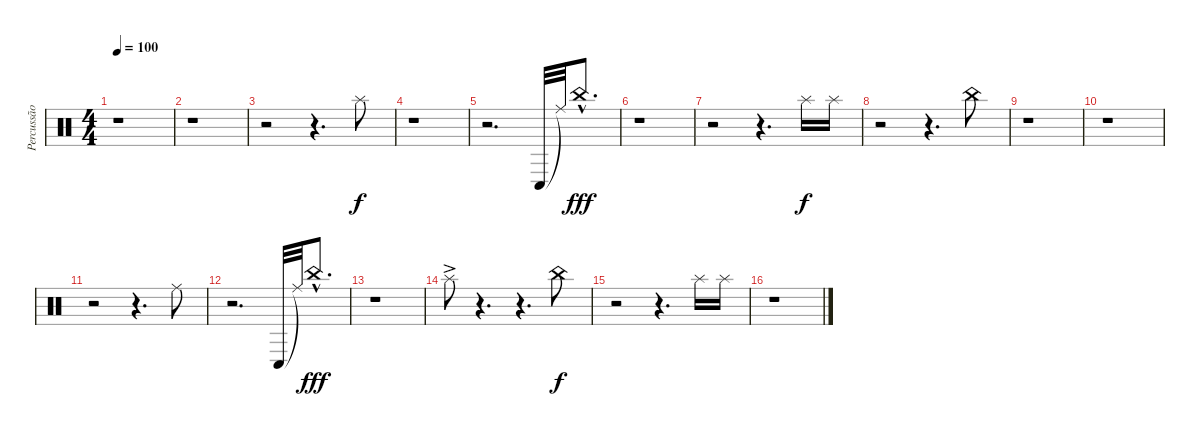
\track ("Percussão" "Percussão") {instrument percussion}
\staff {score}
\articulation defaults
\ts (4 4)
\tempo 100
\clef neutral
\ks c
r.1{dy f} |
r.1 |
r.2 r.4{d} "Splash (hit)".8 |
\ks aminor
r.1 |
r.2{d} "Conga low (hit)".32 "Ride (middle)"{t}.32 "China (hit)"{hac}.8{d dy fff} |
r.1 |
\ks c
r.2 r.4{d} "Splash (hit)".16{dy f} "Splash (hit)".16 |
r.2 r.4{d} "China (hit)".8 |
r.1 |
r.1 |
r.2 r.4{d} "Ride (middle)".8 |
\ks aminor
r.2{d} "Conga low (hit)".32 "Ride (middle)"{t}.32 "China (hit)"{hac}.8{d dy fff} |
r.1 |
\ks c "Splash (hit)"{ac}.8
r.4{d} r.4{d} "China (hit)".8{dy f} |
r.2 r.4{d} "Splash (hit)".16 "Splash (hit)".16 |
r.1
